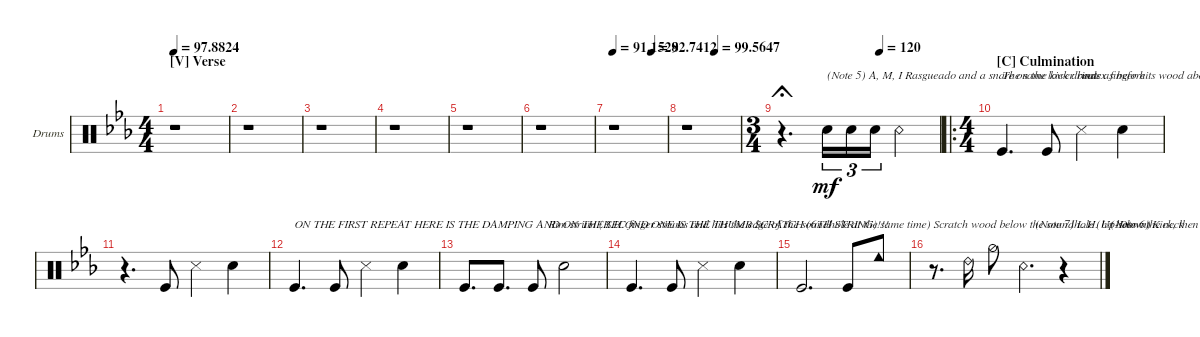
\defaultSystemsLayout 4
\bracketExtendMode groupsimilarinstruments
\firstSystemTrackNameOrientation horizontal
\otherSystemsTrackNameOrientation horizontal
\track ("Percussion" "Drums") {instrument percussion}
\staff {score}
\articulation defaults
\ts (4 4)
\section ("V" "Verse")
\tempo
97.8824
\accidentals auto
\clef neutral
\ottava regular
\simile none
\ks eb
r.1{dy mf} |
r.1 |
r.1 |
r.1 |
r.1 |
r.1 |
\tempo
91.1529
\tempo (82.7412 0.71875)
r.1 |
\tempo (99.5647 0.53125)
r.1 |
\ts (3 4)
\tempo (120 0.625)
r.4{d fermata (short 0)} "Snare (hit) 2".16{tu (3 2) txt "(Note 5) A, M, I Rasgueado and a snare on the lower boat"} "Snare (hit) 2".16{tu (3 2)} "Snare (hit) 2".16{tu (3 2)} "Snare (rim shot)".4 |
\ro
\ts (4 4)
\section ("C" "Culmination")
"Kick (hit)".4{d txt "The same kick drums as before"} "Kick (hit)".8 "Snare (side stick) 3".4{txt "index finger hits wood above the soundhole again"} "Snare (hit) 2".4 |
r.4{d} "Kick (hit)".8 "Snare (side stick) 3".4 "Snare (hit) 2".4 |
"Kick (hit)".4{d txt "ON THE FIRST REPEAT HERE IS THE DAMPING AND ON THE SECOND ONE IS THE THUMB SCRATCH (6TH STRING)!!!"} "Kick (hit)".8 "Snare (side stick) 3".4 "Snare (hit) 2".4 |
"Kick (hit)".8{d} "Kick (hit)".8{d} "Kick (hit)".8{txt "     Rim strum (R.H. finger strums and hits the edge of the soundhole at the same time)"} "Snare (hit) 2".2 |
"Kick (hit)".4{d} "Kick (hit)".8 "Snare (side stick) 3".4 "Snare (hit) 2".4 |
"Kick (hit)".2{d txt "                                                                                                       (Note 6) Kick, then R.H. ring finger nail hits the wood below the soundhole"} "Kick (hit)".8 "Cowbell low (hit)".8 |
r.8{d txt "Scratch wood below the soundhole (Up-Down)"} "Ride (bell) 2".16 "Hi-Hat (half)".8 "Snare (rim shot)".4{d txt "    (Note 7) L.H. hit below the neck"} r.4
